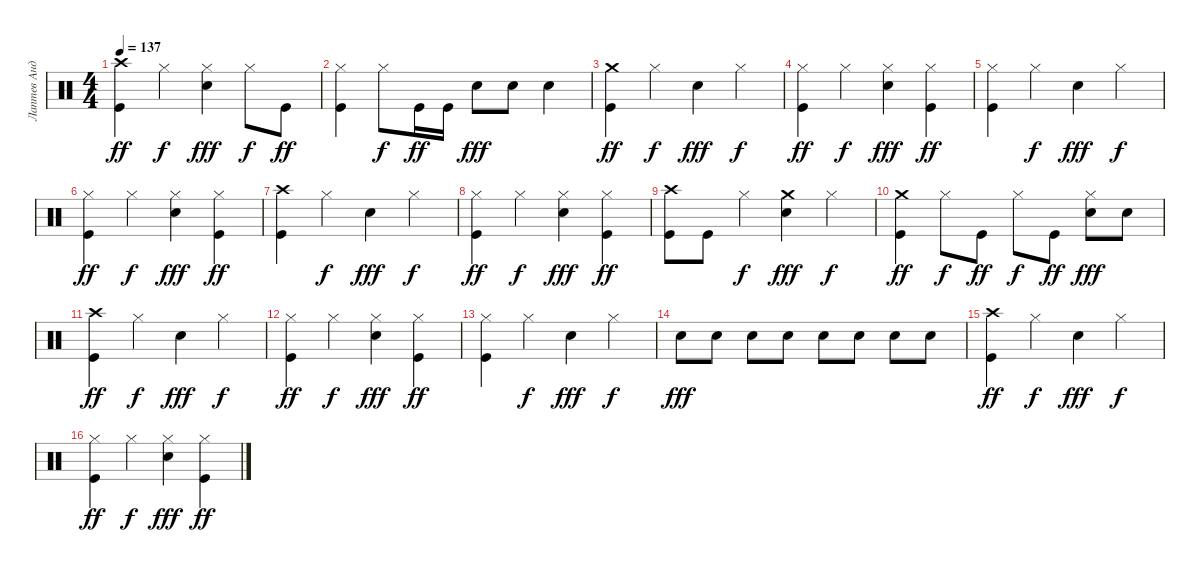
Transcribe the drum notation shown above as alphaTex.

\track ("Лаптев Андрей" "Лаптев Анд") {instrument percussion}
\staff {score}
\articulation defaults
\ts (4 4)
\tempo 137
\clef neutral
\ks c
("Crash high (hit)" "Kick (hit)").4{dy ff} "Hi-Hat (closed)".4{dy f} ("Snare (hit) 2" "Hi-Hat (closed)").4{dy fff} "Hi-Hat (closed)".8{dy f} "Kick (hit)".8{dy ff} |
("Kick (hit)" "Hi-Hat (closed)").4 "Hi-Hat (closed)".8{dy f} "Kick (hit)".16{dy ff} "Kick (hit)".16 "Snare (hit) 2".8{dy fff} "Snare (hit) 2".8 "Snare (hit) 2".4 |
("Kick (hit)" "Crash medium (hit)").4{dy ff} "Hi-Hat (closed)".4{dy f} "Snare (hit) 2".4{dy fff} "Hi-Hat (closed)".4{dy f} |
("Kick (hit)" "Hi-Hat (closed)").4{dy ff} "Hi-Hat (closed)".4{dy f} ("Snare (hit) 2" "Hi-Hat (closed)").4{dy fff} ("Kick (hit)" "Hi-Hat (closed)").4{dy ff} |
("Hi-Hat (closed)" "Kick (hit)").4 "Hi-Hat (closed)".4{dy f} "Snare (hit) 2".4{dy fff} "Hi-Hat (closed)".4{dy f} |
("Kick (hit)" "Hi-Hat (closed)").4{dy ff} "Hi-Hat (closed)".4{dy f} ("Snare (hit) 2" "Hi-Hat (closed)").4{dy fff} ("Kick (hit)" "Hi-Hat (closed)").4{dy ff} |
("Crash high (hit)" "Kick (hit)").4 "Hi-Hat (closed)".4{dy f} "Snare (hit) 2".4{dy fff} "Hi-Hat (closed)".4{dy f} |
("Kick (hit)" "Hi-Hat (closed)").4{dy ff} "Hi-Hat (closed)".4{dy f} ("Snare (hit) 2" "Hi-Hat (closed)").4{dy fff} ("Kick (hit)" "Hi-Hat (closed)").4{dy ff} |
("Crash high (hit)" "Kick (hit)").8 "Kick (hit)".8 "Hi-Hat (closed)".4{dy f} ("Crash medium (hit)" "Snare (hit) 2").4{dy fff} "Hi-Hat (closed)".4{dy f} |
("Crash medium (hit)" "Kick (hit)").4{dy ff} "Hi-Hat (closed)".8{dy f} "Kick (hit)".8{dy ff} "Hi-Hat (closed)".8{dy f} "Kick (hit)".8{dy ff} ("Snare (hit) 2" "Hi-Hat (closed)").8{dy fff} "Snare (hit) 2".8 |
("Kick (hit)" "Crash high (hit)").4{dy ff} "Hi-Hat (closed)".4{dy f} "Snare (hit) 2".4{dy fff} "Hi-Hat (closed)".4{dy f} |
("Kick (hit)" "Hi-Hat (closed)").4{dy ff} "Hi-Hat (closed)".4{dy f} ("Snare (hit) 2" "Hi-Hat (closed)").4{dy fff} ("Kick (hit)" "Hi-Hat (closed)").4{dy ff} |
("Kick (hit)" "Hi-Hat (closed)").4 "Hi-Hat (closed)".4{dy f} "Snare (hit) 2".4{dy fff} "Hi-Hat (closed)".4{dy f} |
"Snare (hit) 2".8{dy fff} "Snare (hit) 2".8 "Snare (hit) 2".8 "Snare (hit) 2".8 "Snare (hit) 2".8 "Snare (hit) 2".8 "Snare (hit) 2".8 "Snare (hit) 2".8 |
("Kick (hit)" "Crash high (hit)").4{dy ff} "Hi-Hat (closed)".4{dy f} "Snare (hit) 2".4{dy fff} "Hi-Hat (closed)".4{dy f} |
("Kick (hit)" "Hi-Hat (closed)").4{dy ff} "Hi-Hat (closed)".4{dy f} ("Snare (hit) 2" "Hi-Hat (closed)").4{dy fff} ("Kick (hit)" "Hi-Hat (closed)").4{dy ff}
